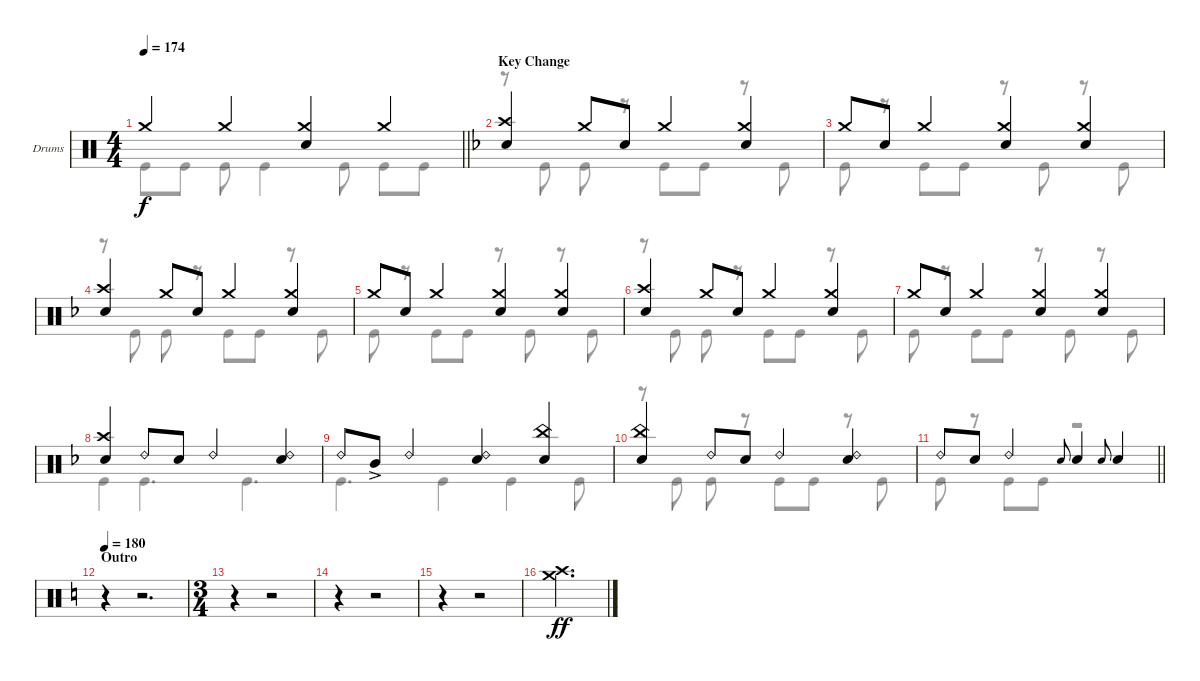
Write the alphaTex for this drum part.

\bracketExtendMode groupsimilarinstruments
\firstSystemTrackNameOrientation horizontal
\otherSystemsTrackNameOrientation horizontal
\track ("Drumkit" "Drums") {instrument percussion}
\staff {score}
\articulation defaults
\voice
\ts (4 4)
\tempo 174
\clef neutral
\barLineRight lightlight
\ks c "Crash medium (hit)".4{dy f} "Crash medium (hit)".4
("Crash medium (hit)" "Snare (hit) 2").4 "Crash medium (hit)".4 |
\section ("" "Key Change")
\ks f
("Crash high (hit)" "Snare (hit) 2").4 "Crash medium (hit)".8 "Snare (hit) 2".8 "Crash medium (hit)".4 ("Crash medium (hit)" "Snare (hit) 2").4 |
"Crash medium (hit)".8 "Snare (hit) 2".8 "Crash medium (hit)".4 ("Crash medium (hit)" "Snare (hit) 2").4 ("Crash medium (hit)" "Snare (hit) 2").4 |
("Crash high (hit)" "Snare (hit) 2").4 "Crash medium (hit)".8 "Snare (hit) 2".8 "Crash medium (hit)".4 ("Crash medium (hit)" "Snare (hit) 2").4 |
"Crash medium (hit)".8 "Snare (hit) 2".8 "Crash medium (hit)".4 ("Crash medium (hit)" "Snare (hit) 2").4 ("Crash medium (hit)" "Snare (hit) 2").4 |
("Crash high (hit)" "Snare (hit) 2").4 "Crash medium (hit)".8 "Snare (hit) 2".8 "Crash medium (hit)".4 ("Crash medium (hit)" "Snare (hit) 2").4 |
"Crash medium (hit)".8 "Snare (hit) 2".8 "Crash medium (hit)".4 ("Crash medium (hit)" "Snare (hit) 2").4 ("Crash medium (hit)" "Snare (hit) 2").4 |
("Crash high (hit)" "Snare (hit) 2").4 "Ride (bell) 2".8 "Snare (hit) 2".8 "Ride (bell) 2".4 ("Ride (bell) 2" "Snare (hit) 2").4 |
"Ride (bell) 2".8 "Mid Tom (hit)"{ac}.8 "Ride (bell) 2".4 ("Ride (bell) 2" "Snare (hit) 2").4 ("China (hit)" "Snare (hit) 2").4 |
("China (hit)" "Snare (hit) 2").4 "Ride (bell) 2".8 "Snare (hit) 2".8 "Ride (bell) 2".4 ("Ride (bell) 2" "Snare (hit) 2").4 |
\barLineRight lightlight "Ride (bell) 2".8 "Snare (hit) 2".8 "Ride (bell) 2".4 "Snare (hit) 2".8{gr onbeat} "Snare (hit) 2".4 "Snare (hit) 2".8{gr onbeat} "Snare (hit) 2".4
|
\section ("" "Outro")
\tempo 180
\ks c
r.4 r.2{d} |
\ts (3 4)
\beaming (8 2 2 2)
r.4 r.2 |
r.4 r.2 |
r.4 r.2 |
("Crash medium (hit)" "Crash high (hit)").2{d dy ff}
\voice
\clef neutral
\ottava regular
\simile none
\barLineRight lightlight
\ks c "Kick (hit)".8{dy f} "Kick (hit)".8 "Kick (hit)".8 "Kick (hit)".4 "Kick (hit)".8 "Kick (hit)".8 "Kick (hit)".8
|
\ks f
r.8 "Kick (hit)".8 "Kick (hit)".8 r.8 "Kick (hit)".8 "Kick (hit)".8 r.8 "Kick (hit)".8 |
"Kick (hit)".8 r.8 "Kick (hit)".8 "Kick (hit)".8 r.8 "Kick (hit)".8 r.8 "Kick (hit)".8 |
r.8 "Kick (hit)".8 "Kick (hit)".8 r.8 "Kick (hit)".8 "Kick (hit)".8 r.8 "Kick (hit)".8 |
"Kick (hit)".8 r.8 "Kick (hit)".8 "Kick (hit)".8 r.8 "Kick (hit)".8 r.8 "Kick (hit)".8 |
r.8 "Kick (hit)".8 "Kick (hit)".8 r.8 "Kick (hit)".8 "Kick (hit)".8 r.8 "Kick (hit)".8 |
"Kick (hit)".8 r.8 "Kick (hit)".8 "Kick (hit)".8 r.8 "Kick (hit)".8 r.8 "Kick (hit)".8 |
"Kick (hit)".4 "Kick (hit)".4{d} "Kick (hit)".4{d} |
"Kick (hit)".4{d} "Kick (hit)".4 "Kick (hit)".4 "Kick (hit)".8 |
r.8 "Kick (hit)".8 "Kick (hit)".8 r.8 "Kick (hit)".8 "Kick (hit)".8 r.8 "Kick (hit)".8 |
\barLineRight lightlight "Kick (hit)".8
r.8 "Kick (hit)".8 "Kick (hit)".8 r.2 |
\ks c
|
|
|
|
